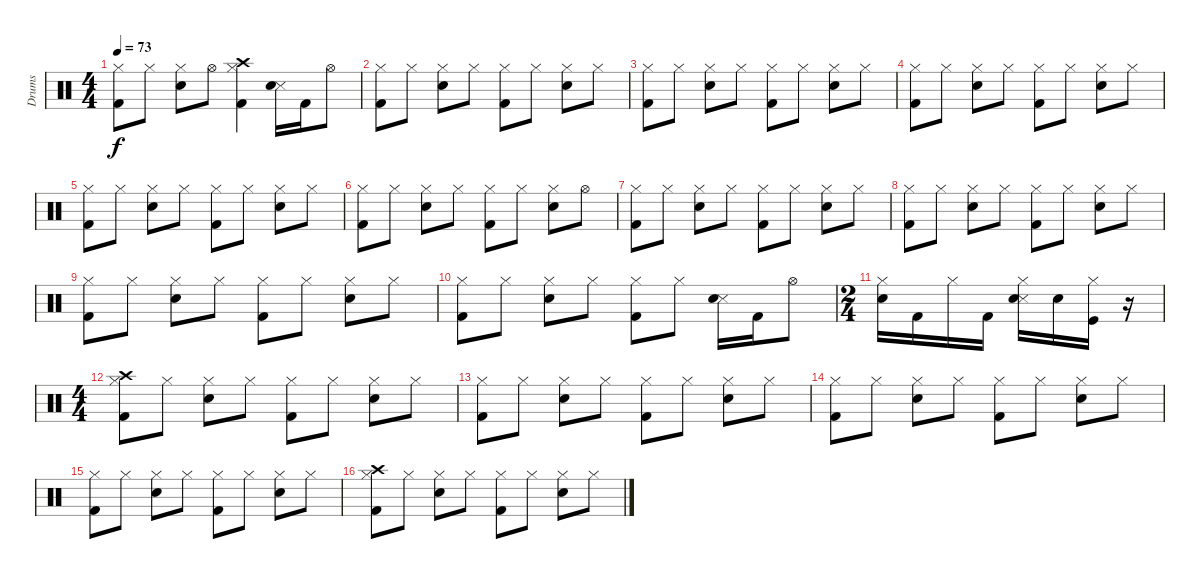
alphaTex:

\track ("Drums" "Drums") {instrument percussion}
\staff {score}
\articulation defaults
\ts (4 4)
\tempo 73
\clef neutral
\ks c
("Hi-Hat (closed)" "Kick (hit) 2").8{dy f} "Hi-Hat (closed)".8 ("Hi-Hat (closed)" "Electric Snare (hit)").8 "Hi-Hat (open)".8 ("Hi-Hat (closed)" "Kick (hit) 2" "Crash high (hit)").4 ("Snare (side stick) 3" "Electric Snare (hit)").16 "Kick (hit) 2".16 "Hi-Hat (open)".8 |
("Hi-Hat (closed)" "Kick (hit) 2").8 "Hi-Hat (closed)".8 ("Hi-Hat (closed)" "Electric Snare (hit)").8 "Hi-Hat (closed)".8 ("Hi-Hat (closed)" "Kick (hit) 2").8 "Hi-Hat (closed)".8 ("Hi-Hat (closed)" "Electric Snare (hit)").8 "Hi-Hat (closed)".8 |
("Hi-Hat (closed)" "Kick (hit) 2").8 "Hi-Hat (closed)".8 ("Hi-Hat (closed)" "Electric Snare (hit)").8 "Hi-Hat (closed)".8 ("Hi-Hat (closed)" "Kick (hit) 2").8 "Hi-Hat (closed)".8 ("Hi-Hat (closed)" "Electric Snare (hit)").8 "Hi-Hat (closed)".8 |
("Hi-Hat (closed)" "Kick (hit) 2").8 "Hi-Hat (closed)".8 ("Hi-Hat (closed)" "Electric Snare (hit)").8 "Hi-Hat (closed)".8 ("Hi-Hat (closed)" "Kick (hit) 2").8 "Hi-Hat (closed)".8 ("Hi-Hat (closed)" "Electric Snare (hit)").8 "Hi-Hat (closed)".8 |
("Hi-Hat (closed)" "Kick (hit) 2").8 "Hi-Hat (closed)".8 ("Hi-Hat (closed)" "Electric Snare (hit)").8 "Hi-Hat (closed)".8 ("Hi-Hat (closed)" "Kick (hit) 2").8 "Hi-Hat (closed)".8 ("Hi-Hat (closed)" "Electric Snare (hit)").8 "Hi-Hat (closed)".8 |
("Hi-Hat (closed)" "Kick (hit) 2").8 "Hi-Hat (closed)".8 ("Hi-Hat (closed)" "Electric Snare (hit)").8 "Hi-Hat (closed)".8 ("Hi-Hat (closed)" "Kick (hit) 2").8 "Hi-Hat (closed)".8 ("Hi-Hat (closed)" "Electric Snare (hit)").8 "Hi-Hat (open)".8 |
("Hi-Hat (closed)" "Kick (hit) 2").8 "Hi-Hat (closed)".8 ("Hi-Hat (closed)" "Electric Snare (hit)").8 "Hi-Hat (closed)".8 ("Hi-Hat (closed)" "Kick (hit) 2").8 "Hi-Hat (closed)".8 ("Hi-Hat (closed)" "Electric Snare (hit)").8 "Hi-Hat (closed)".8 |
("Hi-Hat (closed)" "Kick (hit) 2").8 "Hi-Hat (closed)".8 ("Hi-Hat (closed)" "Electric Snare (hit)").8 "Hi-Hat (closed)".8 ("Hi-Hat (closed)" "Kick (hit) 2").8 "Hi-Hat (closed)".8 ("Hi-Hat (closed)" "Electric Snare (hit)").8 "Hi-Hat (closed)".8 |
("Hi-Hat (closed)" "Kick (hit) 2").8 "Hi-Hat (closed)".8 ("Hi-Hat (closed)" "Electric Snare (hit)").8 "Hi-Hat (closed)".8 ("Hi-Hat (closed)" "Kick (hit) 2").8 "Hi-Hat (closed)".8 ("Hi-Hat (closed)" "Electric Snare (hit)").8 "Hi-Hat (closed)".8 |
("Hi-Hat (closed)" "Kick (hit) 2").8 "Hi-Hat (closed)".8 ("Hi-Hat (closed)" "Electric Snare (hit)").8 "Hi-Hat (closed)".8 ("Hi-Hat (closed)" "Kick (hit) 2").8 "Hi-Hat (closed)".8 ("Snare (side stick) 3" "Electric Snare (hit)").16 "Kick (hit) 2".16 "Hi-Hat (open)".8 |
\ts (2 4)
("Hi-Hat (closed)" "Electric Snare (hit)").16 "Kick (hit) 2".16 "Hi-Hat (closed)".16 "Kick (hit) 2".16 ("Hi-Hat (closed)" "Snare (side stick) 3" "Electric Snare (hit)").16 "Electric Snare (hit)".16 ("Hi-Hat (closed)" "Kick (hit)").16 r.16 |
\ts (4 4)
("Hi-Hat (closed)" "Kick (hit) 2" "Crash high (hit)").8 "Hi-Hat (closed)".8 ("Hi-Hat (closed)" "Electric Snare (hit)").8 "Hi-Hat (closed)".8 ("Hi-Hat (closed)" "Kick (hit) 2").8 "Hi-Hat (closed)".8 ("Hi-Hat (closed)" "Electric Snare (hit)").8 "Hi-Hat (closed)".8 |
("Hi-Hat (closed)" "Kick (hit) 2").8 "Hi-Hat (closed)".8 ("Hi-Hat (closed)" "Electric Snare (hit)").8 "Hi-Hat (closed)".8 ("Hi-Hat (closed)" "Kick (hit) 2").8 "Hi-Hat (closed)".8 ("Hi-Hat (closed)" "Electric Snare (hit)").8 "Hi-Hat (closed)".8 |
("Hi-Hat (closed)" "Kick (hit) 2").8 "Hi-Hat (closed)".8 ("Hi-Hat (closed)" "Electric Snare (hit)").8 "Hi-Hat (closed)".8 ("Hi-Hat (closed)" "Kick (hit) 2").8 "Hi-Hat (closed)".8 ("Hi-Hat (closed)" "Electric Snare (hit)").8 "Hi-Hat (closed)".8 |
("Hi-Hat (closed)" "Kick (hit) 2").8 "Hi-Hat (closed)".8 ("Hi-Hat (closed)" "Electric Snare (hit)").8 "Hi-Hat (closed)".8 ("Hi-Hat (closed)" "Kick (hit) 2").8 "Hi-Hat (closed)".8 ("Hi-Hat (closed)" "Electric Snare (hit)").8 "Hi-Hat (closed)".8 |
("Hi-Hat (closed)" "Kick (hit) 2" "Crash high (hit)").8 "Hi-Hat (closed)".8 ("Hi-Hat (closed)" "Electric Snare (hit)").8 "Hi-Hat (closed)".8 ("Hi-Hat (closed)" "Kick (hit) 2").8 "Hi-Hat (closed)".8 ("Hi-Hat (closed)" "Electric Snare (hit)").8 "Hi-Hat (closed)".8
